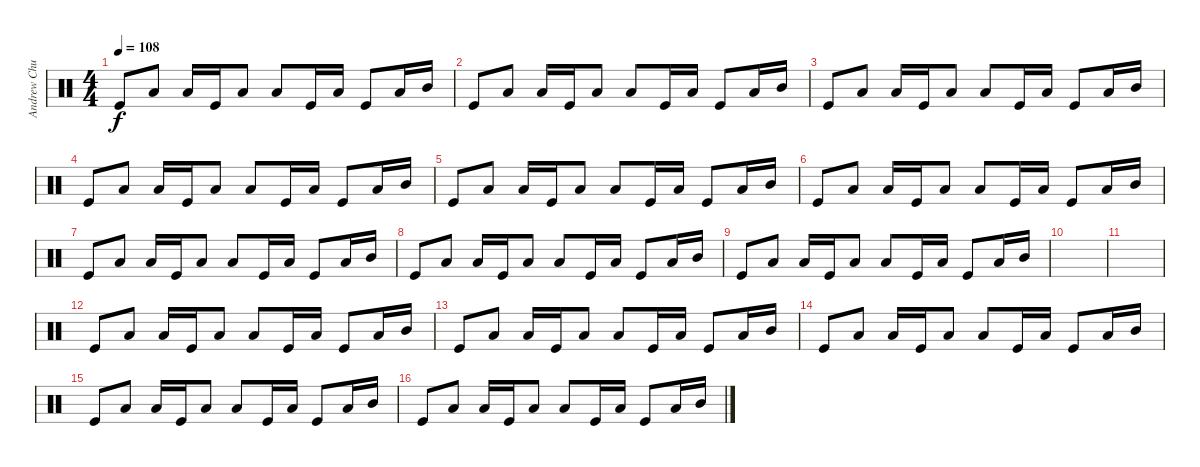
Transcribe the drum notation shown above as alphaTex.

\track ("Andrew Chudy - Bassdrum" "Andrew Chu") {instrument percussion}
\staff {score}
\articulation defaults
\ts (4 4)
\tempo 108
\clef neutral
\ks c "Kick (hit)".8{dy f} "Low Floor Tom (hit)".8 "Low Floor Tom (hit)".16 "Kick (hit)".16 "Low Floor Tom (hit)".8 "Low Floor Tom (hit)".8 "Kick (hit)".16 "Low Floor Tom (hit)".16 "Kick (hit)".8 "Low Floor Tom (hit)".16 "Mid Tom (hit)".16
|
"Kick (hit)".8 "Low Floor Tom (hit)".8 "Low Floor Tom (hit)".16 "Kick (hit)".16 "Low Floor Tom (hit)".8 "Low Floor Tom (hit)".8 "Kick (hit)".16 "Low Floor Tom (hit)".16 "Kick (hit)".8 "Low Floor Tom (hit)".16 "Mid Tom (hit)".16 |
"Kick (hit)".8 "Low Floor Tom (hit)".8 "Low Floor Tom (hit)".16 "Kick (hit)".16 "Low Floor Tom (hit)".8 "Low Floor Tom (hit)".8 "Kick (hit)".16 "Low Floor Tom (hit)".16 "Kick (hit)".8 "Low Floor Tom (hit)".16 "Mid Tom (hit)".16 |
"Kick (hit)".8 "Low Floor Tom (hit)".8 "Low Floor Tom (hit)".16 "Kick (hit)".16 "Low Floor Tom (hit)".8 "Low Floor Tom (hit)".8 "Kick (hit)".16 "Low Floor Tom (hit)".16 "Kick (hit)".8 "Low Floor Tom (hit)".16 "Mid Tom (hit)".16 |
"Kick (hit)".8 "Low Floor Tom (hit)".8 "Low Floor Tom (hit)".16 "Kick (hit)".16 "Low Floor Tom (hit)".8 "Low Floor Tom (hit)".8 "Kick (hit)".16 "Low Floor Tom (hit)".16 "Kick (hit)".8 "Low Floor Tom (hit)".16 "Mid Tom (hit)".16 |
"Kick (hit)".8 "Low Floor Tom (hit)".8 "Low Floor Tom (hit)".16 "Kick (hit)".16 "Low Floor Tom (hit)".8 "Low Floor Tom (hit)".8 "Kick (hit)".16 "Low Floor Tom (hit)".16 "Kick (hit)".8 "Low Floor Tom (hit)".16 "Mid Tom (hit)".16 |
"Kick (hit)".8 "Low Floor Tom (hit)".8 "Low Floor Tom (hit)".16 "Kick (hit)".16 "Low Floor Tom (hit)".8 "Low Floor Tom (hit)".8 "Kick (hit)".16 "Low Floor Tom (hit)".16 "Kick (hit)".8 "Low Floor Tom (hit)".16 "Mid Tom (hit)".16 |
"Kick (hit)".8 "Low Floor Tom (hit)".8 "Low Floor Tom (hit)".16 "Kick (hit)".16 "Low Floor Tom (hit)".8 "Low Floor Tom (hit)".8 "Kick (hit)".16 "Low Floor Tom (hit)".16 "Kick (hit)".8 "Low Floor Tom (hit)".16 "Mid Tom (hit)".16 |
"Kick (hit)".8 "Low Floor Tom (hit)".8 "Low Floor Tom (hit)".16 "Kick (hit)".16 "Low Floor Tom (hit)".8 "Low Floor Tom (hit)".8 "Kick (hit)".16 "Low Floor Tom (hit)".16 "Kick (hit)".8 "Low Floor Tom (hit)".16 "Mid Tom (hit)".16 |
|
|
"Kick (hit)".8 "Low Floor Tom (hit)".8 "Low Floor Tom (hit)".16 "Kick (hit)".16 "Low Floor Tom (hit)".8 "Low Floor Tom (hit)".8 "Kick (hit)".16 "Low Floor Tom (hit)".16 "Kick (hit)".8 "Low Floor Tom (hit)".16 "Mid Tom (hit)".16 |
"Kick (hit)".8 "Low Floor Tom (hit)".8 "Low Floor Tom (hit)".16 "Kick (hit)".16 "Low Floor Tom (hit)".8 "Low Floor Tom (hit)".8 "Kick (hit)".16 "Low Floor Tom (hit)".16 "Kick (hit)".8 "Low Floor Tom (hit)".16 "Mid Tom (hit)".16 |
"Kick (hit)".8 "Low Floor Tom (hit)".8 "Low Floor Tom (hit)".16 "Kick (hit)".16 "Low Floor Tom (hit)".8 "Low Floor Tom (hit)".8 "Kick (hit)".16 "Low Floor Tom (hit)".16 "Kick (hit)".8 "Low Floor Tom (hit)".16 "Mid Tom (hit)".16 |
"Kick (hit)".8 "Low Floor Tom (hit)".8 "Low Floor Tom (hit)".16 "Kick (hit)".16 "Low Floor Tom (hit)".8 "Low Floor Tom (hit)".8 "Kick (hit)".16 "Low Floor Tom (hit)".16 "Kick (hit)".8 "Low Floor Tom (hit)".16 "Mid Tom (hit)".16 |
"Kick (hit)".8 "Low Floor Tom (hit)".8 "Low Floor Tom (hit)".16 "Kick (hit)".16 "Low Floor Tom (hit)".8 "Low Floor Tom (hit)".8 "Kick (hit)".16 "Low Floor Tom (hit)".16 "Kick (hit)".8 "Low Floor Tom (hit)".16 "Mid Tom (hit)".16
